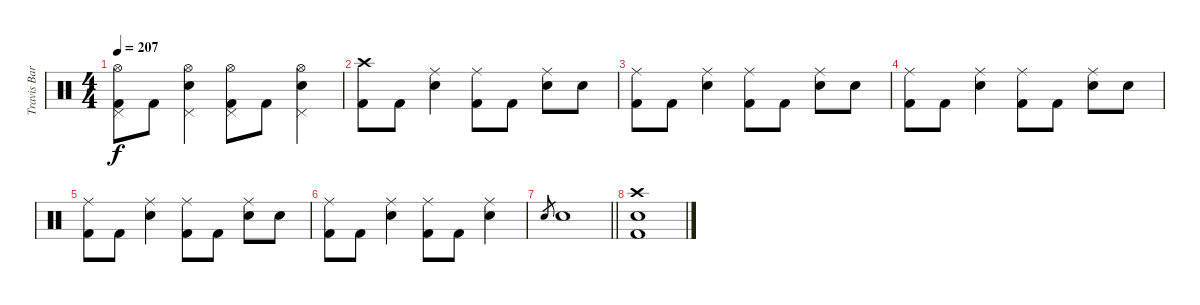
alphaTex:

\track ("Travis Barker" "Travis Bar") {instrument percussion}
\staff {score}
\articulation defaults
\ts (4 4)
\tempo 207
\clef neutral
\ks c
("Hi-Hat (open)" "Pedal Hi-Hat (hit)" "Kick (hit) 2").8{dy f} "Kick (hit) 2".8 ("Hi-Hat (open)" "Pedal Hi-Hat (hit)" "Electric Snare (hit)").4 ("Hi-Hat (open)" "Pedal Hi-Hat (hit)" "Kick (hit) 2").8 "Kick (hit) 2".8 ("Hi-Hat (open)" "Pedal Hi-Hat (hit)" "Electric Snare (hit)").4 |
("Crash high (hit)" "Kick (hit) 2").8 "Kick (hit) 2".8 ("Ride (middle)" "Electric Snare (hit)").4 ("Ride (middle)" "Kick (hit) 2").8 "Kick (hit) 2".8 ("Ride (middle)" "Electric Snare (hit)").8 "Electric Snare (hit)".8 |
("Ride (middle)" "Kick (hit) 2").8 "Kick (hit) 2".8 ("Ride (middle)" "Electric Snare (hit)").4 ("Ride (middle)" "Kick (hit) 2").8 "Kick (hit) 2".8 ("Ride (middle)" "Electric Snare (hit)").8 "Electric Snare (hit)".8 |
("Ride (middle)" "Kick (hit) 2").8 "Kick (hit) 2".8 ("Ride (middle)" "Electric Snare (hit)").4 ("Ride (middle)" "Kick (hit) 2").8 "Kick (hit) 2".8 ("Ride (middle)" "Electric Snare (hit)").8 "Electric Snare (hit)".8 |
("Ride (middle)" "Kick (hit) 2").8 "Kick (hit) 2".8 ("Ride (middle)" "Electric Snare (hit)").4 ("Ride (middle)" "Kick (hit) 2").8 "Kick (hit) 2".8 ("Ride (middle)" "Electric Snare (hit)").8 "Electric Snare (hit)".8 |
("Ride (middle)" "Kick (hit) 2").8 "Kick (hit) 2".8 ("Ride (middle)" "Electric Snare (hit)").4 ("Ride (middle)" "Kick (hit) 2").8 "Kick (hit) 2".8 ("Ride (middle)" "Electric Snare (hit)").4 |
\barLineRight lightlight "Electric Snare (hit)".8{gr} "Electric Snare (hit)".1
|
("Kick (hit) 2" "Electric Snare (hit)" "Crash high (hit)").1
